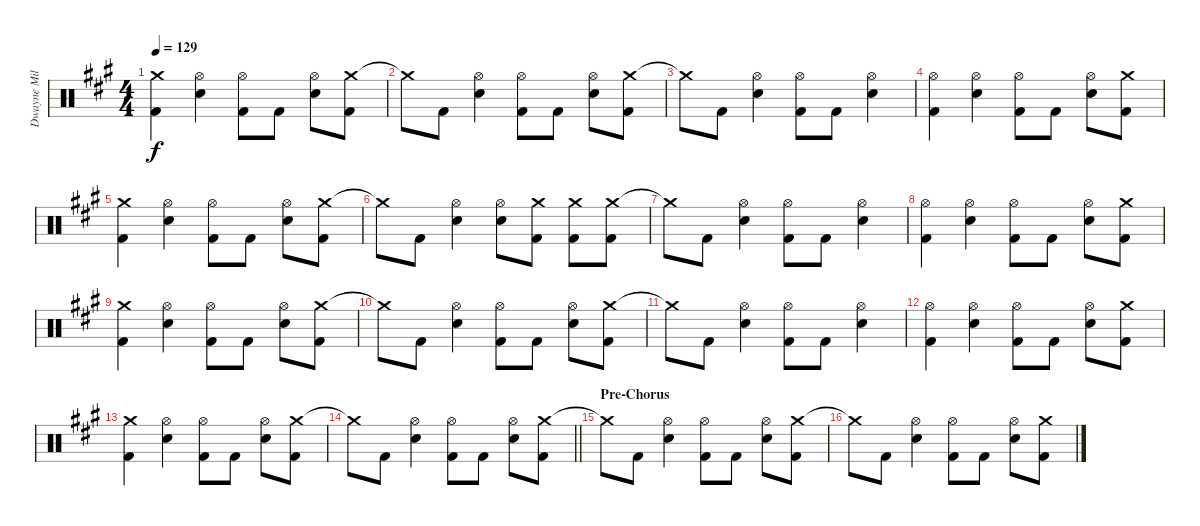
\track ("Dwayne Miller" "Dwayne Mil") {instrument percussion}
\staff {score}
\articulation defaults
\ts (4 4)
\tempo 129
\clef neutral
\ks a
("Crash medium (hit)" "Kick (hit) 2").4{dy f} ("Hi-Hat (open)" "Snare (hit) 2").4 ("Hi-Hat (open)" "Kick (hit) 2").8 "Kick (hit) 2".8 ("Hi-Hat (open)" "Snare (hit) 2").8 ("Crash medium (hit)" "Kick (hit) 2").8 |
"Crash medium (hit)"{t}.8 "Kick (hit) 2".8 ("Hi-Hat (open)" "Snare (hit) 2").4 ("Hi-Hat (open)" "Kick (hit) 2").8 "Kick (hit) 2".8 ("Hi-Hat (open)" "Snare (hit) 2").8 ("Crash medium (hit)" "Kick (hit) 2").8 |
"Crash medium (hit)"{t}.8 "Kick (hit) 2".8 ("Hi-Hat (open)" "Snare (hit) 2").4 ("Hi-Hat (open)" "Kick (hit) 2").8 "Kick (hit) 2".8 ("Hi-Hat (open)" "Snare (hit) 2").4 |
("Hi-Hat (open)" "Kick (hit) 2").4 ("Hi-Hat (open)" "Snare (hit) 2").4 ("Hi-Hat (open)" "Kick (hit) 2").8 "Kick (hit) 2".8 ("Hi-Hat (open)" "Snare (hit) 2").8 ("Crash medium (hit)" "Kick (hit) 2").8 |
("Crash medium (hit)" "Kick (hit) 2").4 ("Hi-Hat (open)" "Snare (hit) 2").4 ("Hi-Hat (open)" "Kick (hit) 2").8 "Kick (hit) 2".8 ("Hi-Hat (open)" "Snare (hit) 2").8 ("Crash medium (hit)" "Kick (hit) 2").8 |
"Crash medium (hit)"{t}.8 "Kick (hit) 2".8 ("Hi-Hat (open)" "Snare (hit) 2").4 ("Hi-Hat (open)" "Snare (hit) 2").8 ("Crash medium (hit)" "Kick (hit) 2").8 ("Crash medium (hit)" "Kick (hit) 2").8 ("Crash medium (hit)" "Kick (hit) 2").8 |
"Crash medium (hit)"{t}.8 "Kick (hit) 2".8 ("Hi-Hat (open)" "Snare (hit) 2").4 ("Hi-Hat (open)" "Kick (hit) 2").8 "Kick (hit) 2".8 ("Hi-Hat (open)" "Snare (hit) 2").4 |
("Hi-Hat (open)" "Kick (hit) 2").4 ("Hi-Hat (open)" "Snare (hit) 2").4 ("Hi-Hat (open)" "Kick (hit) 2").8 "Kick (hit) 2".8 ("Hi-Hat (open)" "Snare (hit) 2").8 ("Crash medium (hit)" "Kick (hit) 2").8 |
("Crash medium (hit)" "Kick (hit) 2").4 ("Hi-Hat (open)" "Snare (hit) 2").4 ("Hi-Hat (open)" "Kick (hit) 2").8 "Kick (hit) 2".8 ("Hi-Hat (open)" "Snare (hit) 2").8 ("Crash medium (hit)" "Kick (hit) 2").8 |
"Crash medium (hit)"{t}.8 "Kick (hit) 2".8 ("Hi-Hat (open)" "Snare (hit) 2").4 ("Hi-Hat (open)" "Kick (hit) 2").8 "Kick (hit) 2".8 ("Hi-Hat (open)" "Snare (hit) 2").8 ("Crash medium (hit)" "Kick (hit) 2").8 |
"Crash medium (hit)"{t}.8 "Kick (hit) 2".8 ("Hi-Hat (open)" "Snare (hit) 2").4 ("Hi-Hat (open)" "Kick (hit) 2").8 "Kick (hit) 2".8 ("Hi-Hat (open)" "Snare (hit) 2").4 |
("Hi-Hat (open)" "Kick (hit) 2").4 ("Hi-Hat (open)" "Snare (hit) 2").4 ("Hi-Hat (open)" "Kick (hit) 2").8 "Kick (hit) 2".8 ("Hi-Hat (open)" "Snare (hit) 2").8 ("Crash medium (hit)" "Kick (hit) 2").8 |
("Crash medium (hit)" "Kick (hit) 2").4 ("Hi-Hat (open)" "Snare (hit) 2").4 ("Hi-Hat (open)" "Kick (hit) 2").8 "Kick (hit) 2".8 ("Hi-Hat (open)" "Snare (hit) 2").8 ("Crash medium (hit)" "Kick (hit) 2").8 |
\barLineRight lightlight "Crash medium (hit)"{t}.8 "Kick (hit) 2".8
("Hi-Hat (open)" "Snare (hit) 2").4 ("Hi-Hat (open)" "Kick (hit) 2").8 "Kick (hit) 2".8 ("Hi-Hat (open)" "Snare (hit) 2").8 ("Crash medium (hit)" "Kick (hit) 2").8 |
\section ("" "Pre-Chorus")
"Crash medium (hit)"{t}.8 "Kick (hit) 2".8 ("Hi-Hat (open)" "Snare (hit) 2").4 ("Hi-Hat (open)" "Kick (hit) 2").8 "Kick (hit) 2".8 ("Hi-Hat (open)" "Snare (hit) 2").8 ("Crash medium (hit)" "Kick (hit) 2").8 |
"Crash medium (hit)"{t}.8 "Kick (hit) 2".8 ("Hi-Hat (open)" "Snare (hit) 2").4 ("Hi-Hat (open)" "Kick (hit) 2").8 "Kick (hit) 2".8 ("Hi-Hat (open)" "Snare (hit) 2").8 ("Crash medium (hit)" "Kick (hit) 2").8
